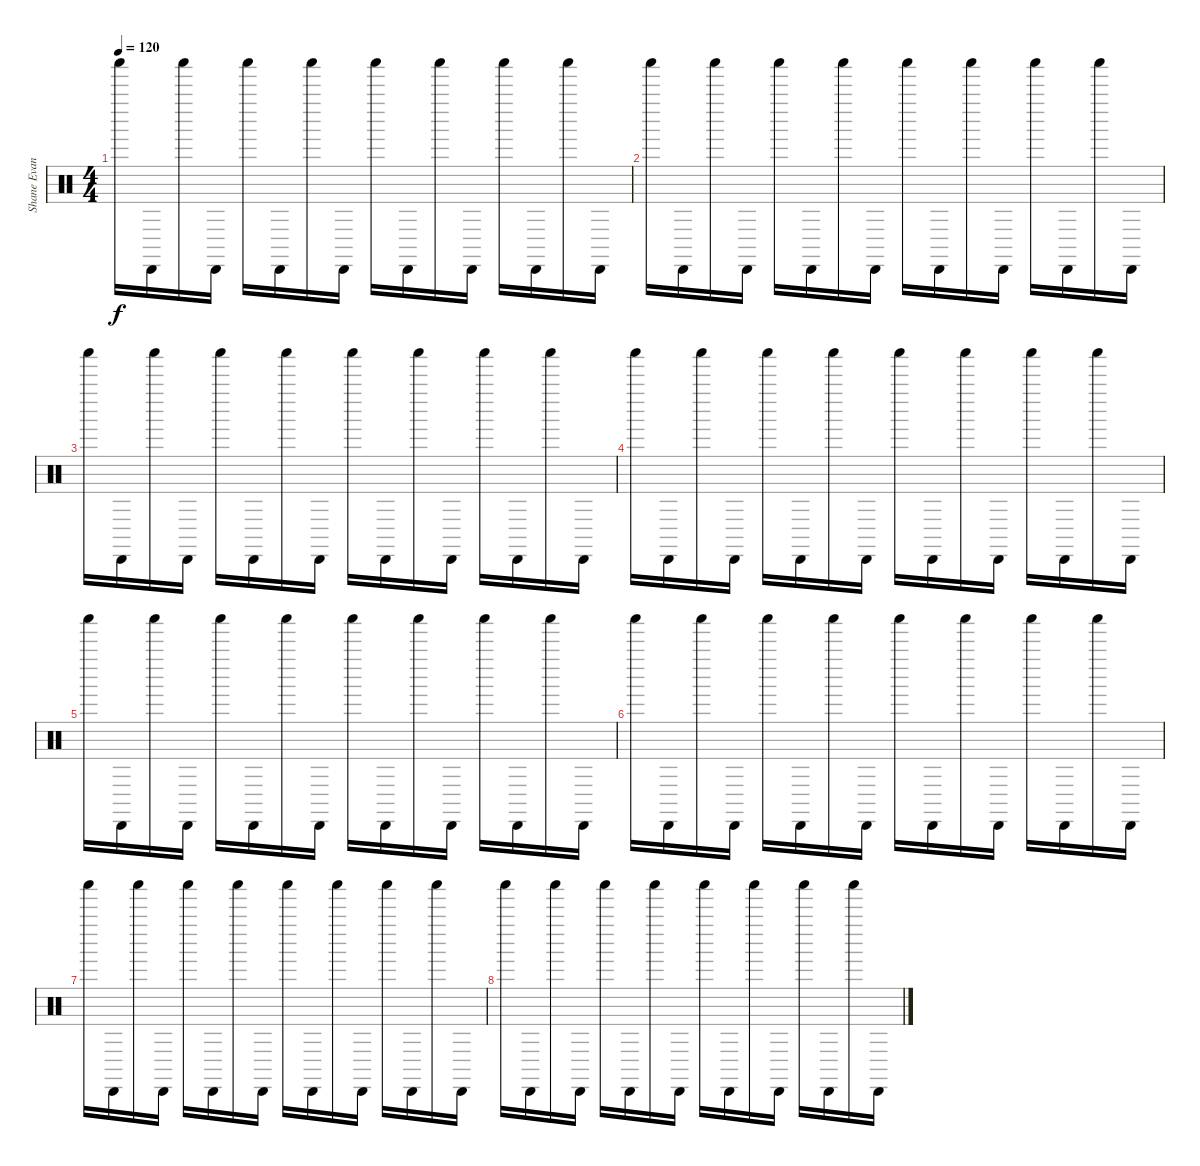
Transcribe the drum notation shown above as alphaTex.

\track ("Shane Evans" "Shane Evan") {instrument percussion}
\staff {score}
\articulation defaults
\ts (4 4)
\tempo 120
\clef neutral
\ks c "Shaker (hit)".16{dy f} "Cabasa (hit)".16 "Shaker (hit)".16 "Cabasa (hit)".16 "Shaker (hit)".16 "Cabasa (hit)".16 "Shaker (hit)".16 "Cabasa (hit)".16 "Shaker (hit)".16 "Cabasa (hit)".16 "Shaker (hit)".16 "Cabasa (hit)".16 "Shaker (hit)".16 "Cabasa (hit)".16 "Shaker (hit)".16 "Cabasa (hit)".16
|
"Shaker (hit)".16 "Cabasa (hit)".16 "Shaker (hit)".16 "Cabasa (hit)".16 "Shaker (hit)".16 "Cabasa (hit)".16 "Shaker (hit)".16 "Cabasa (hit)".16 "Shaker (hit)".16 "Cabasa (hit)".16 "Shaker (hit)".16 "Cabasa (hit)".16 "Shaker (hit)".16 "Cabasa (hit)".16 "Shaker (hit)".16 "Cabasa (hit)".16 |
"Shaker (hit)".16 "Cabasa (hit)".16 "Shaker (hit)".16 "Cabasa (hit)".16 "Shaker (hit)".16 "Cabasa (hit)".16 "Shaker (hit)".16 "Cabasa (hit)".16 "Shaker (hit)".16 "Cabasa (hit)".16 "Shaker (hit)".16 "Cabasa (hit)".16 "Shaker (hit)".16 "Cabasa (hit)".16 "Shaker (hit)".16 "Cabasa (hit)".16 |
"Shaker (hit)".16 "Cabasa (hit)".16 "Shaker (hit)".16 "Cabasa (hit)".16 "Shaker (hit)".16 "Cabasa (hit)".16 "Shaker (hit)".16 "Cabasa (hit)".16 "Shaker (hit)".16 "Cabasa (hit)".16 "Shaker (hit)".16 "Cabasa (hit)".16 "Shaker (hit)".16 "Cabasa (hit)".16 "Shaker (hit)".16 "Cabasa (hit)".16 |
"Shaker (hit)".16 "Cabasa (hit)".16 "Shaker (hit)".16 "Cabasa (hit)".16 "Shaker (hit)".16 "Cabasa (hit)".16 "Shaker (hit)".16 "Cabasa (hit)".16 "Shaker (hit)".16 "Cabasa (hit)".16 "Shaker (hit)".16 "Cabasa (hit)".16 "Shaker (hit)".16 "Cabasa (hit)".16 "Shaker (hit)".16 "Cabasa (hit)".16 |
"Shaker (hit)".16 "Cabasa (hit)".16 "Shaker (hit)".16 "Cabasa (hit)".16 "Shaker (hit)".16 "Cabasa (hit)".16 "Shaker (hit)".16 "Cabasa (hit)".16 "Shaker (hit)".16 "Cabasa (hit)".16 "Shaker (hit)".16 "Cabasa (hit)".16 "Shaker (hit)".16 "Cabasa (hit)".16 "Shaker (hit)".16 "Cabasa (hit)".16 |
"Shaker (hit)".16 "Cabasa (hit)".16 "Shaker (hit)".16 "Cabasa (hit)".16 "Shaker (hit)".16 "Cabasa (hit)".16 "Shaker (hit)".16 "Cabasa (hit)".16 "Shaker (hit)".16 "Cabasa (hit)".16 "Shaker (hit)".16 "Cabasa (hit)".16 "Shaker (hit)".16 "Cabasa (hit)".16 "Shaker (hit)".16 "Cabasa (hit)".16 |
"Shaker (hit)".16 "Cabasa (hit)".16 "Shaker (hit)".16 "Cabasa (hit)".16 "Shaker (hit)".16 "Cabasa (hit)".16 "Shaker (hit)".16 "Cabasa (hit)".16 "Shaker (hit)".16 "Cabasa (hit)".16 "Shaker (hit)".16 "Cabasa (hit)".16 "Shaker (hit)".16 "Cabasa (hit)".16 "Shaker (hit)".16 "Cabasa (hit)".16
